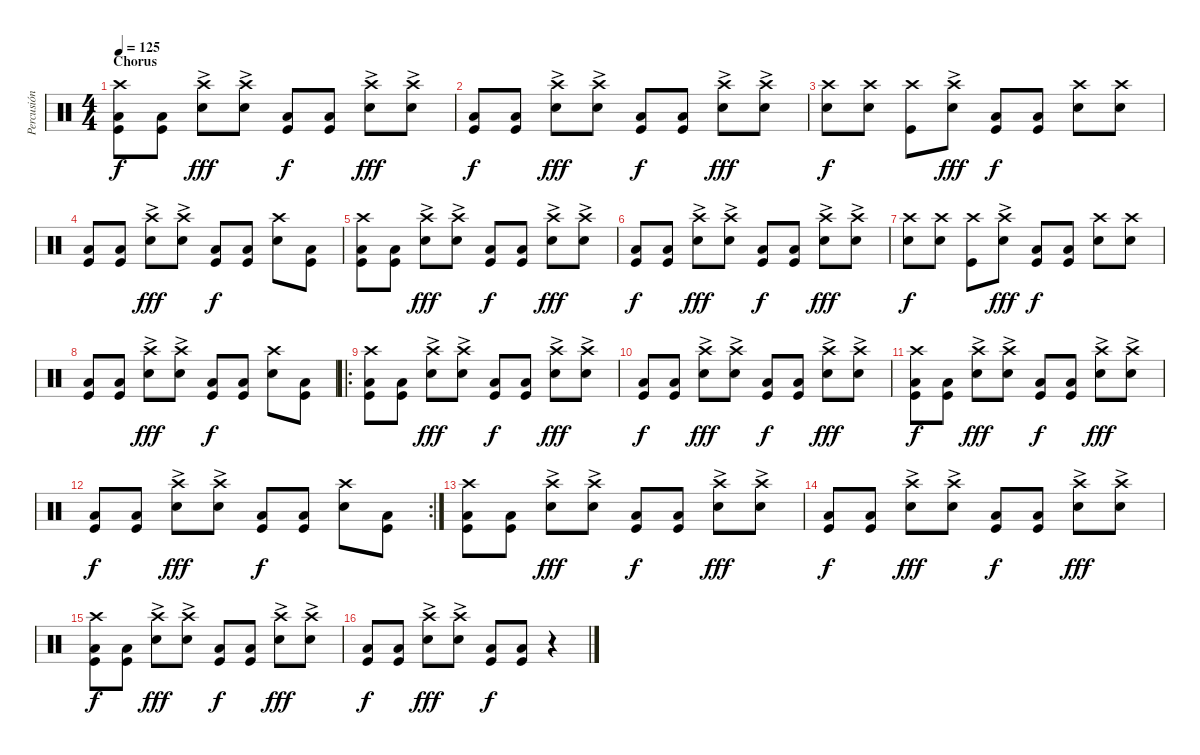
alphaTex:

\track ("Percusión" "Percusión") {instrument percussion}
\staff {score}
\articulation defaults
\ts (4 4)
\section ("" "Chorus")
\tempo 125
\clef neutral
\ks c
("Crash high (hit)" "Low Tom (hit)" "Kick (hit)").8{dy f} ("Low Tom (hit)" "Kick (hit)").8 ("Crash high (hit)"{ac} "Snare (hit) 2").8{dy fff} ("Crash high (hit)"{ac} "Snare (hit) 2").8 ("Low Tom (hit)" "Kick (hit)").8{dy f} ("Low Tom (hit)" "Kick (hit)").8 ("Crash high (hit)"{ac} "Snare (hit) 2").8{dy fff} ("Crash high (hit)"{ac} "Snare (hit) 2").8 |
("Low Tom (hit)" "Kick (hit)").8{dy f} ("Low Tom (hit)" "Kick (hit)").8 ("Crash high (hit)"{ac} "Snare (hit) 2").8{dy fff} ("Crash high (hit)"{ac} "Snare (hit) 2").8 ("Low Tom (hit)" "Kick (hit)").8{dy f} ("Low Tom (hit)" "Kick (hit)").8 ("Crash high (hit)"{ac} "Snare (hit) 2").8{dy fff} ("Crash high (hit)"{ac} "Snare (hit) 2").8 |
("Crash high (hit)" "Snare (hit) 2").8{dy f} ("Crash high (hit)" "Snare (hit) 2").8 ("Crash high (hit)" "Kick (hit)").8 ("Crash high (hit)"{ac} "Snare (hit) 2").8{dy fff} ("Low Tom (hit)" "Kick (hit)").8{dy f} ("Low Tom (hit)" "Kick (hit)").8 ("Crash high (hit)" "Snare (hit) 2").8 ("Crash high (hit)" "Snare (hit) 2").8 |
("Low Tom (hit)" "Kick (hit)").8 ("Low Tom (hit)" "Kick (hit)").8 ("Crash high (hit)"{ac} "Snare (hit) 2").8{dy fff} ("Crash high (hit)"{ac} "Snare (hit) 2").8 ("Low Tom (hit)" "Kick (hit)").8{dy f} ("Low Tom (hit)" "Kick (hit)").8 ("Crash high (hit)" "Snare (hit) 2").8 ("Low Tom (hit)" "Kick (hit)").8 |
("Crash high (hit)" "Low Tom (hit)" "Kick (hit)").8 ("Low Tom (hit)" "Kick (hit)").8 ("Crash high (hit)"{ac} "Snare (hit) 2").8{dy fff} ("Crash high (hit)"{ac} "Snare (hit) 2").8 ("Low Tom (hit)" "Kick (hit)").8{dy f} ("Low Tom (hit)" "Kick (hit)").8 ("Crash high (hit)"{ac} "Snare (hit) 2").8{dy fff} ("Crash high (hit)"{ac} "Snare (hit) 2").8 |
("Low Tom (hit)" "Kick (hit)").8{dy f} ("Low Tom (hit)" "Kick (hit)").8 ("Crash high (hit)"{ac} "Snare (hit) 2").8{dy fff} ("Crash high (hit)"{ac} "Snare (hit) 2").8 ("Low Tom (hit)" "Kick (hit)").8{dy f} ("Low Tom (hit)" "Kick (hit)").8 ("Crash high (hit)"{ac} "Snare (hit) 2").8{dy fff} ("Crash high (hit)"{ac} "Snare (hit) 2").8 |
("Crash high (hit)" "Snare (hit) 2").8{dy f} ("Crash high (hit)" "Snare (hit) 2").8 ("Crash high (hit)" "Kick (hit)").8 ("Crash high (hit)"{ac} "Snare (hit) 2").8{dy fff} ("Low Tom (hit)" "Kick (hit)").8{dy f} ("Low Tom (hit)" "Kick (hit)").8 ("Crash high (hit)" "Snare (hit) 2").8 ("Crash high (hit)" "Snare (hit) 2").8 |
("Low Tom (hit)" "Kick (hit)").8 ("Low Tom (hit)" "Kick (hit)").8 ("Crash high (hit)"{ac} "Snare (hit) 2").8{dy fff} ("Crash high (hit)"{ac} "Snare (hit) 2").8 ("Low Tom (hit)" "Kick (hit)").8{dy f} ("Low Tom (hit)" "Kick (hit)").8 ("Crash high (hit)" "Snare (hit) 2").8 ("Low Tom (hit)" "Kick (hit)").8 |
\ro
("Crash high (hit)" "Low Tom (hit)" "Kick (hit)").8 ("Low Tom (hit)" "Kick (hit)").8 ("Crash high (hit)"{ac} "Snare (hit) 2").8{dy fff} ("Crash high (hit)"{ac} "Snare (hit) 2").8 ("Low Tom (hit)" "Kick (hit)").8{dy f} ("Low Tom (hit)" "Kick (hit)").8 ("Crash high (hit)"{ac} "Snare (hit) 2").8{dy fff} ("Crash high (hit)"{ac} "Snare (hit) 2").8 |
("Low Tom (hit)" "Kick (hit)").8{dy f} ("Low Tom (hit)" "Kick (hit)").8 ("Crash high (hit)"{ac} "Snare (hit) 2").8{dy fff} ("Crash high (hit)"{ac} "Snare (hit) 2").8 ("Low Tom (hit)" "Kick (hit)").8{dy f} ("Low Tom (hit)" "Kick (hit)").8 ("Crash high (hit)"{ac} "Snare (hit) 2").8{dy fff} ("Crash high (hit)"{ac} "Snare (hit) 2").8 |
("Crash high (hit)" "Low Tom (hit)" "Kick (hit)").8{dy f} ("Low Tom (hit)" "Kick (hit)").8 ("Crash high (hit)"{ac} "Snare (hit) 2").8{dy fff} ("Crash high (hit)"{ac} "Snare (hit) 2").8 ("Low Tom (hit)" "Kick (hit)").8{dy f} ("Low Tom (hit)" "Kick (hit)").8 ("Crash high (hit)"{ac} "Snare (hit) 2").8{dy fff} ("Crash high (hit)"{ac} "Snare (hit) 2").8 |
\rc 2
("Low Tom (hit)" "Kick (hit)").8{dy f} ("Low Tom (hit)" "Kick (hit)").8 ("Crash high (hit)"{ac} "Snare (hit) 2").8{dy fff} ("Crash high (hit)"{ac} "Snare (hit) 2").8 ("Low Tom (hit)" "Kick (hit)").8{dy f} ("Low Tom (hit)" "Kick (hit)").8 ("Crash high (hit)" "Snare (hit) 2").8 ("Low Tom (hit)" "Kick (hit)").8 |
("Crash high (hit)" "Low Tom (hit)" "Kick (hit)").8 ("Low Tom (hit)" "Kick (hit)").8 ("Crash high (hit)"{ac} "Snare (hit) 2").8{dy fff} ("Crash high (hit)"{ac} "Snare (hit) 2").8 ("Low Tom (hit)" "Kick (hit)").8{dy f} ("Low Tom (hit)" "Kick (hit)").8 ("Crash high (hit)"{ac} "Snare (hit) 2").8{dy fff} ("Crash high (hit)"{ac} "Snare (hit) 2").8 |
("Low Tom (hit)" "Kick (hit)").8{dy f} ("Low Tom (hit)" "Kick (hit)").8 ("Crash high (hit)"{ac} "Snare (hit) 2").8{dy fff} ("Crash high (hit)"{ac} "Snare (hit) 2").8 ("Low Tom (hit)" "Kick (hit)").8{dy f} ("Low Tom (hit)" "Kick (hit)").8 ("Crash high (hit)"{ac} "Snare (hit) 2").8{dy fff} ("Crash high (hit)"{ac} "Snare (hit) 2").8 |
("Crash high (hit)" "Low Tom (hit)" "Kick (hit)").8{dy f} ("Low Tom (hit)" "Kick (hit)").8 ("Crash high (hit)"{ac} "Snare (hit) 2").8{dy fff} ("Crash high (hit)"{ac} "Snare (hit) 2").8 ("Low Tom (hit)" "Kick (hit)").8{dy f} ("Low Tom (hit)" "Kick (hit)").8 ("Crash high (hit)"{ac} "Snare (hit) 2").8{dy fff} ("Crash high (hit)"{ac} "Snare (hit) 2").8 |
("Low Tom (hit)" "Kick (hit)").8{dy f} ("Low Tom (hit)" "Kick (hit)").8 ("Crash high (hit)"{ac} "Snare (hit) 2").8{dy fff} ("Crash high (hit)"{ac} "Snare (hit) 2").8 ("Low Tom (hit)" "Kick (hit)").8{dy f} ("Low Tom (hit)" "Kick (hit)").8 r.4
